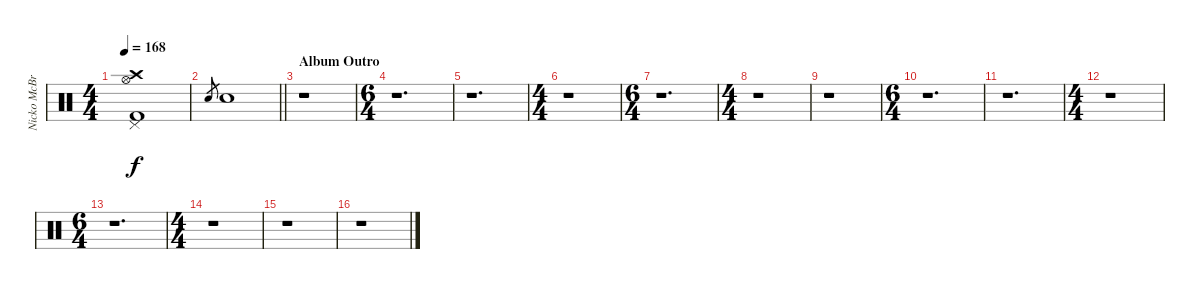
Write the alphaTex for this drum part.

\track ("Nicko McBrain" "Nicko McBr") {instrument percussion}
\staff {score}
\articulation defaults
\ts (4 4)
\tempo 168
\clef neutral
\ks c
("Kick (hit) 2" "Pedal Hi-Hat (hit)" "Hi-Hat (open)" "Crash high (hit)").1{dy f} |
\barLineRight lightlight "Snare (hit) 2".8{gr} "Snare (hit) 2".1
|
\section ("" "Album Outro")
r.1 |
\ts (6 4)
r.1{d} |
r.1{d} |
\ts (4 4)
r.1 |
\ts (6 4)
r.1{d} |
\ts (4 4)
r.1 |
r.1 |
\ts (6 4)
r.1{d} |
r.1{d} |
\ts (4 4)
r.1 |
\ts (6 4)
r.1{d} |
\ts (4 4)
r.1 |
r.1 |
r.1
